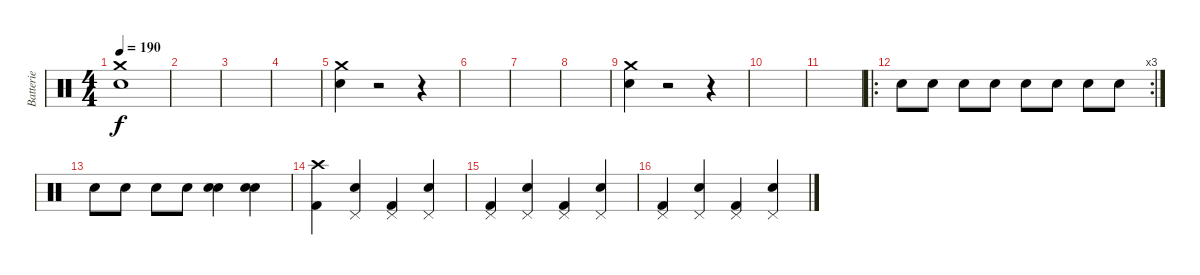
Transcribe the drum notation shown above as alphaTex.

\track ("Batterie" "Batterie") {instrument percussion}
\staff {score}
\articulation defaults
\ts (4 4)
\tempo 190
\clef neutral
\ks c
("Crash medium (hit)" "Snare (hit) 2").1{dy f} |
|
|
|
("Crash medium (hit)" "Snare (hit) 2").4 r.2 r.4 |
|
|
|
("Crash medium (hit)" "Snare (hit) 2").4 r.2 r.4 |
|
|
\ro
\rc 3 "Snare (hit) 2".8 "Snare (hit) 2".8 "Snare (hit) 2".8 "Snare (hit) 2".8 "Snare (hit) 2".8 "Snare (hit) 2".8 "Snare (hit) 2".8 "Snare (hit) 2".8
|
"Snare (hit) 2".8 "Snare (hit) 2".8 "Snare (hit) 2".8 "Snare (hit) 2".8 ("Snare (hit) 2" "Snare (hit) 2").4 ("Snare (hit) 2" "Snare (hit) 2").4 |
("Crash high (hit)" "Kick (hit) 2").4 ("Pedal Hi-Hat (hit)" "Snare (hit) 2").4 ("Pedal Hi-Hat (hit)" "Kick (hit) 2").4 ("Pedal Hi-Hat (hit)" "Snare (hit) 2").4 |
("Pedal Hi-Hat (hit)" "Kick (hit) 2").4 ("Pedal Hi-Hat (hit)" "Snare (hit) 2").4 ("Pedal Hi-Hat (hit)" "Kick (hit) 2").4 ("Pedal Hi-Hat (hit)" "Snare (hit) 2").4 |
("Pedal Hi-Hat (hit)" "Kick (hit) 2").4 ("Pedal Hi-Hat (hit)" "Snare (hit) 2").4 ("Pedal Hi-Hat (hit)" "Kick (hit) 2").4 ("Pedal Hi-Hat (hit)" "Snare (hit) 2").4
